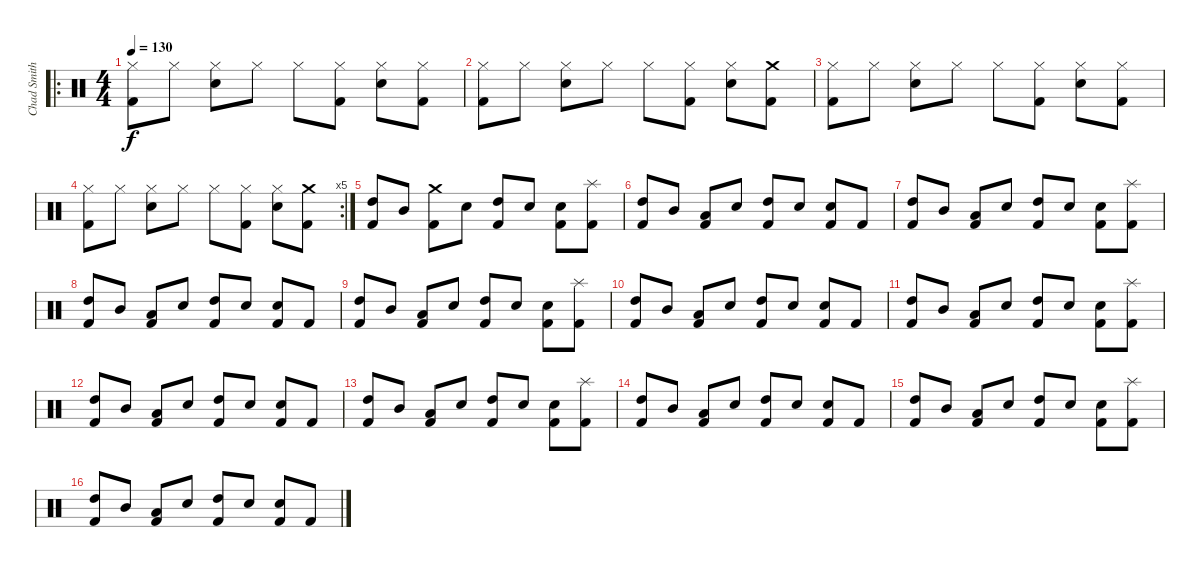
\track ("Chad Smith" "Chad Smith") {instrument percussion}
\staff {score}
\articulation defaults
\ro
\ts (4 4)
\tempo 130
\clef neutral
\ks c
("Hi-Hat (closed)" "Kick (hit) 2").8{dy f} "Hi-Hat (closed)".8 ("Hi-Hat (closed)" "Electric Snare (hit)").8 "Hi-Hat (closed)".8 "Hi-Hat (closed)".8 ("Hi-Hat (closed)" "Kick (hit) 2").8 ("Hi-Hat (closed)" "Electric Snare (hit)").8 ("Hi-Hat (closed)" "Kick (hit) 2").8 |
("Hi-Hat (closed)" "Kick (hit) 2").8 "Hi-Hat (closed)".8 ("Hi-Hat (closed)" "Electric Snare (hit)").8 "Hi-Hat (closed)".8 "Hi-Hat (closed)".8 ("Hi-Hat (closed)" "Kick (hit) 2").8 ("Hi-Hat (closed)" "Electric Snare (hit)").8 ("Crash medium (hit)" "Kick (hit) 2").8 |
("Hi-Hat (closed)" "Kick (hit) 2").8 "Hi-Hat (closed)".8 ("Hi-Hat (closed)" "Electric Snare (hit)").8 "Hi-Hat (closed)".8 "Hi-Hat (closed)".8 ("Hi-Hat (closed)" "Kick (hit) 2").8 ("Hi-Hat (closed)" "Electric Snare (hit)").8 ("Hi-Hat (closed)" "Kick (hit) 2").8 |
\rc 5
("Hi-Hat (closed)" "Kick (hit) 2").8 "Hi-Hat (closed)".8 ("Hi-Hat (closed)" "Electric Snare (hit)").8 "Hi-Hat (closed)".8 "Hi-Hat (closed)".8 ("Hi-Hat (closed)" "Kick (hit) 2").8 ("Hi-Hat (closed)" "Electric Snare (hit)").8 ("Crash medium (hit)" "Kick (hit) 2").8 |
("High Tom (hit)" "Kick (hit) 2").8 "Mid Tom (hit)".8 ("Crash medium (hit)" "Kick (hit) 2").8 "Electric Snare (hit)".8 ("High Tom (hit)" "Kick (hit) 2").8 "Electric Snare (hit)".8 ("Electric Snare (hit)" "Kick (hit) 2").8 ("Splash (hit)" "Kick (hit) 2").8 |
("High Tom (hit)" "Kick (hit) 2").8 "Mid Tom (hit)".8 ("Low Tom (hit)" "Kick (hit) 2").8 "Electric Snare (hit)".8 ("High Tom (hit)" "Kick (hit) 2").8 "Electric Snare (hit)".8 ("Electric Snare (hit)" "Kick (hit) 2").8 "Kick (hit) 2".8 |
("High Tom (hit)" "Kick (hit) 2").8 "Mid Tom (hit)".8 ("Low Tom (hit)" "Kick (hit) 2").8 "Electric Snare (hit)".8 ("High Tom (hit)" "Kick (hit) 2").8 "Electric Snare (hit)".8 ("Electric Snare (hit)" "Kick (hit) 2").8 ("Splash (hit)" "Kick (hit) 2").8 |
("High Tom (hit)" "Kick (hit) 2").8 "Mid Tom (hit)".8 ("Low Tom (hit)" "Kick (hit) 2").8 "Electric Snare (hit)".8 ("High Tom (hit)" "Kick (hit) 2").8 "Electric Snare (hit)".8 ("Electric Snare (hit)" "Kick (hit) 2").8 "Kick (hit) 2".8 |
("High Tom (hit)" "Kick (hit) 2").8 "Mid Tom (hit)".8 ("Low Tom (hit)" "Kick (hit) 2").8 "Electric Snare (hit)".8 ("High Tom (hit)" "Kick (hit) 2").8 "Electric Snare (hit)".8 ("Electric Snare (hit)" "Kick (hit) 2").8 ("Splash (hit)" "Kick (hit) 2").8 |
("High Tom (hit)" "Kick (hit) 2").8 "Mid Tom (hit)".8 ("Low Tom (hit)" "Kick (hit) 2").8 "Electric Snare (hit)".8 ("High Tom (hit)" "Kick (hit) 2").8 "Electric Snare (hit)".8 ("Electric Snare (hit)" "Kick (hit) 2").8 "Kick (hit) 2".8 |
("High Tom (hit)" "Kick (hit) 2").8 "Mid Tom (hit)".8 ("Low Tom (hit)" "Kick (hit) 2").8 "Electric Snare (hit)".8 ("High Tom (hit)" "Kick (hit) 2").8 "Electric Snare (hit)".8 ("Electric Snare (hit)" "Kick (hit) 2").8 ("Splash (hit)" "Kick (hit) 2").8 |
("High Tom (hit)" "Kick (hit) 2").8 "Mid Tom (hit)".8 ("Low Tom (hit)" "Kick (hit) 2").8 "Electric Snare (hit)".8 ("High Tom (hit)" "Kick (hit) 2").8 "Electric Snare (hit)".8 ("Electric Snare (hit)" "Kick (hit) 2").8 "Kick (hit) 2".8 |
("High Tom (hit)" "Kick (hit) 2").8 "Mid Tom (hit)".8 ("Low Tom (hit)" "Kick (hit) 2").8 "Electric Snare (hit)".8 ("High Tom (hit)" "Kick (hit) 2").8 "Electric Snare (hit)".8 ("Electric Snare (hit)" "Kick (hit) 2").8 ("Splash (hit)" "Kick (hit) 2").8 |
("High Tom (hit)" "Kick (hit) 2").8 "Mid Tom (hit)".8 ("Low Tom (hit)" "Kick (hit) 2").8 "Electric Snare (hit)".8 ("High Tom (hit)" "Kick (hit) 2").8 "Electric Snare (hit)".8 ("Electric Snare (hit)" "Kick (hit) 2").8 "Kick (hit) 2".8 |
("High Tom (hit)" "Kick (hit) 2").8 "Mid Tom (hit)".8 ("Low Tom (hit)" "Kick (hit) 2").8 "Electric Snare (hit)".8 ("High Tom (hit)" "Kick (hit) 2").8 "Electric Snare (hit)".8 ("Electric Snare (hit)" "Kick (hit) 2").8 ("Splash (hit)" "Kick (hit) 2").8 |
("High Tom (hit)" "Kick (hit) 2").8 "Mid Tom (hit)".8 ("Low Tom (hit)" "Kick (hit) 2").8 "Electric Snare (hit)".8 ("High Tom (hit)" "Kick (hit) 2").8 "Electric Snare (hit)".8 ("Electric Snare (hit)" "Kick (hit) 2").8 "Kick (hit) 2".8
